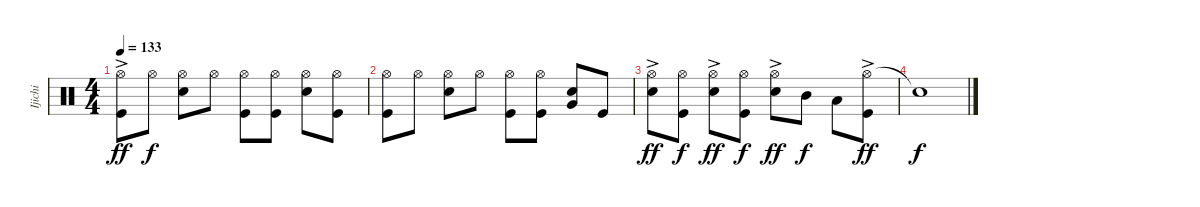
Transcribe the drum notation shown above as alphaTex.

\track ("Ijichi" "Ijichi") {instrument percussion}
\staff {score}
\articulation defaults
\ts (4 4)
\tempo 133
\clef neutral
\ks c
("Hi-Hat (open)"{ac} "Kick (hit)").8{dy ff} "Hi-Hat (open)".8{dy f} ("Hi-Hat (open)" "Snare (hit) 2").8 "Hi-Hat (open)".8 ("Hi-Hat (open)" "Kick (hit)").8 ("Hi-Hat (open)" "Kick (hit)").8 ("Hi-Hat (open)" "Snare (hit) 2").8 ("Hi-Hat (open)" "Kick (hit)").8 |
("Hi-Hat (open)" "Kick (hit)").8 "Hi-Hat (open)".8 ("Hi-Hat (open)" "Snare (hit) 2").8 "Hi-Hat (open)".8 ("Hi-Hat (open)" "Kick (hit)").8 ("Hi-Hat (open)" "Kick (hit)").8 ("Snare (hit) 2" "Very Low Tom (hit)").8 "Kick (hit)".8 |
("Hi-Hat (open)"{ac} "Snare (hit) 2").8{dy ff} ("Hi-Hat (open)" "Kick (hit)").8{dy f} ("Hi-Hat (open)"{ac} "Snare (hit) 2").8{dy ff} ("Hi-Hat (open)" "Kick (hit)").8{dy f} ("Hi-Hat (open)"{ac} "Snare (hit) 2").8{dy ff} "Mid Tom (hit)".8{dy f} "Low Tom (hit)".8 ("Hi-Hat (open)"{ac} "Kick (hit)").8{dy ff} |
"Snare (hit)"{t}.1{dy f}
